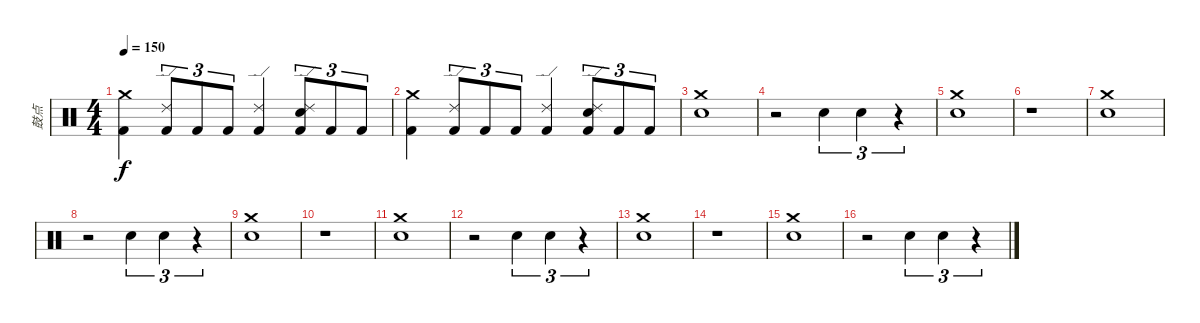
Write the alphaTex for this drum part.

\track ("鼓点" "鼓点") {instrument percussion}
\staff {score}
\articulation defaults
\ts (4 4)
\tempo 150
\clef neutral
\ks c
("Kick (hit) 2" "Crash medium (hit)").4{dy f} ("Kick (hit) 2" "Ride (edge) 2").8{tu (3 2)} "Kick (hit) 2".8{tu (3 2)} "Kick (hit) 2".8{tu (3 2)} ("Kick (hit) 2" "Ride (edge) 2").4 ("Kick (hit) 2" "Ride (edge) 2" "Snare (hit) 2").8{tu (3 2)} "Kick (hit) 2".8{tu (3 2)} "Kick (hit) 2".8{tu (3 2)} |
("Kick (hit) 2" "Crash medium (hit)").4 ("Kick (hit) 2" "Ride (edge) 2").8{tu (3 2)} "Kick (hit) 2".8{tu (3 2)} "Kick (hit) 2".8{tu (3 2)} ("Kick (hit) 2" "Ride (edge) 2").4 ("Kick (hit) 2" "Ride (edge) 2" "Snare (hit) 2").8{tu (3 2)} "Kick (hit) 2".8{tu (3 2)} "Kick (hit) 2".8{tu (3 2)} |
("Snare (hit) 2" "Crash medium (hit)").1 |
r.2 "Snare (hit) 2".4{tu (3 2)} "Snare (hit) 2".4{tu (3 2)} r.4{tu (3 2)} |
("Snare (hit) 2" "Crash medium (hit)").1 |
r.1 |
("Snare (hit) 2" "Crash medium (hit)").1 |
r.2 "Snare (hit) 2".4{tu (3 2)} "Snare (hit) 2".4{tu (3 2)} r.4{tu (3 2)} |
("Snare (hit) 2" "Crash medium (hit)").1 |
r.1 |
("Snare (hit) 2" "Crash medium (hit)").1 |
r.2 "Snare (hit) 2".4{tu (3 2)} "Snare (hit) 2".4{tu (3 2)} r.4{tu (3 2)} |
("Snare (hit) 2" "Crash medium (hit)").1 |
r.1 |
("Snare (hit) 2" "Crash medium (hit)").1 |
r.2 "Snare (hit) 2".4{tu (3 2)} "Snare (hit) 2".4{tu (3 2)} r.4{tu (3 2)}
